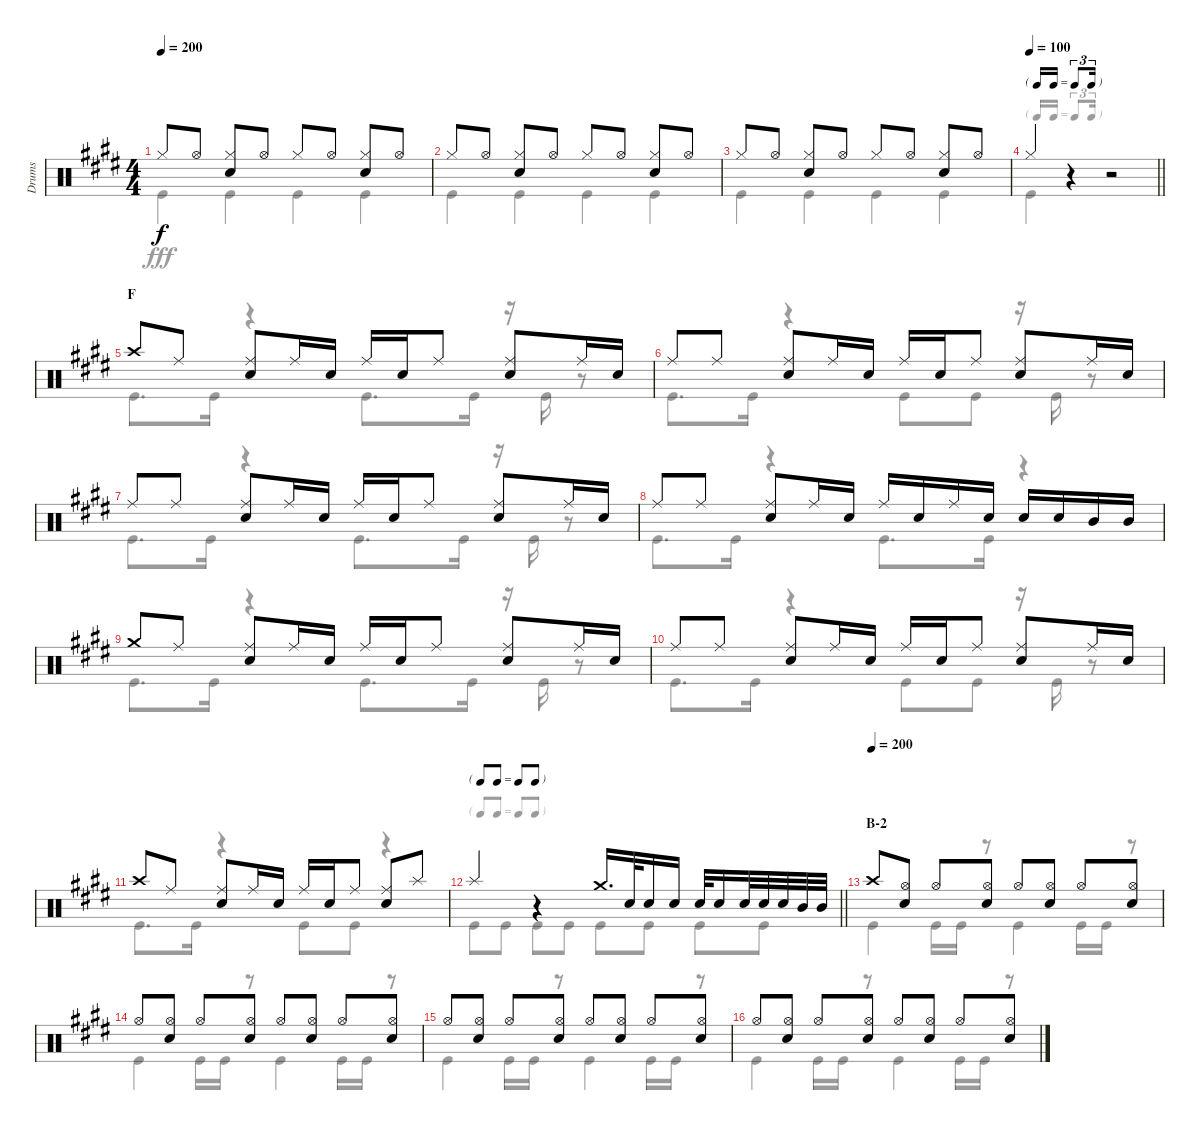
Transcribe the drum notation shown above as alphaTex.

\track ("Drums" "Drums") {instrument percussion}
\staff {score}
\articulation defaults
\voice
\ts (4 4)
\tempo 200
\clef neutral
\ks e "Hi-Hat (closed)".8{dy f} "Hi-Hat (open)".8
("Hi-Hat (closed)" "Snare (hit) 2").8 "Hi-Hat (open)".8 "Hi-Hat (closed)".8 "Hi-Hat (open)".8 ("Hi-Hat (closed)" "Snare (hit) 2").8 "Hi-Hat (open)".8 |
"Hi-Hat (closed)".8 "Hi-Hat (open)".8 ("Hi-Hat (closed)" "Snare (hit) 2").8 "Hi-Hat (open)".8 "Hi-Hat (closed)".8 "Hi-Hat (open)".8 ("Hi-Hat (closed)" "Snare (hit) 2").8 "Hi-Hat (open)".8 |
"Hi-Hat (closed)".8 "Hi-Hat (open)".8 ("Hi-Hat (closed)" "Snare (hit) 2").8 "Hi-Hat (open)".8 "Hi-Hat (closed)".8 "Hi-Hat (open)".8 ("Hi-Hat (closed)" "Snare (hit) 2").8 "Hi-Hat (open)".8 |
\tf triplet16th
\tempo 100
\barLineRight lightlight "Hi-Hat (closed)".4
r.4 r.2 |
\section ("" "F")
"Crash high (hit)".8 "Ride (middle)".8 ("Ride (middle)" "Snare (hit) 2").8 "Ride (middle)".16 "Snare (hit) 2".16 "Ride (middle)".16 "Snare (hit) 2".16 "Ride (middle)".8 ("Ride (middle)" "Snare (hit) 2").8 "Ride (middle)".16 "Snare (hit) 2".16 |
"Ride (middle)".8 "Ride (middle)".8 ("Ride (middle)" "Snare (hit) 2").8 "Ride (middle)".16 "Snare (hit) 2".16 "Ride (middle)".16 "Snare (hit) 2".16 "Ride (middle)".8 ("Ride (middle)" "Snare (hit) 2").8 "Ride (middle)".16 "Snare (hit) 2".16 |
"Ride (middle)".8 "Ride (middle)".8 ("Ride (middle)" "Snare (hit) 2").8 "Ride (middle)".16 "Snare (hit) 2".16 "Ride (middle)".16 "Snare (hit) 2".16 "Ride (middle)".8 ("Ride (middle)" "Snare (hit) 2").8 "Ride (middle)".16 "Snare (hit) 2".16 |
"Ride (middle)".8 "Ride (middle)".8 ("Ride (middle)" "Snare (hit) 2").8 "Ride (middle)".16 "Snare (hit) 2".16 "Ride (middle)".16 "Snare (hit) 2".16 "Ride (middle)".16 "Snare (hit) 2".16 "Snare (hit) 2".16 "Snare (hit) 2".16 "Mid Tom (hit)".16 "Mid Tom (hit)".16 |
"Crash medium (hit)".8 "Ride (middle)".8 ("Ride (middle)" "Snare (hit) 2").8 "Ride (middle)".16 "Snare (hit) 2".16 "Ride (middle)".16 "Snare (hit) 2".16 "Ride (middle)".8 ("Ride (middle)" "Snare (hit) 2").8 "Ride (middle)".16 "Snare (hit) 2".16 |
"Ride (middle)".8 "Ride (middle)".8 ("Ride (middle)" "Snare (hit) 2").8 "Ride (middle)".16 "Snare (hit) 2".16 "Ride (middle)".16 "Snare (hit) 2".16 "Ride (middle)".8 ("Ride (middle)" "Snare (hit) 2").8 "Ride (middle)".16 "Snare (hit) 2".16 |
"Crash high (hit)".8 "Ride (middle)".8 ("Ride (middle)" "Snare (hit) 2").8 "Ride (middle)".16 "Snare (hit) 2".16 "Ride (middle)".16 "Snare (hit) 2".16 "Ride (middle)".8 ("Ride (middle)" "Snare (hit) 2").8 "Splash (hit)".8 |
\tf none
\barLineRight lightlight "Splash (hit)".4
r.4 "Crash medium (hit)".16{d} "Snare (hit) 2".32 "Snare (hit) 2".16 "Snare (hit) 2".16 "Snare (hit) 2".32 "Snare (hit) 2".16 "Snare (hit) 2".32 "Snare (hit) 2".32 "Snare (hit) 2".32 "Mid Tom (hit)".32 "Mid Tom (hit)".32 |
\section ("" "B-2")
\tempo (200)
"Crash high (hit)".8 ("Hi-Hat (open)" "Snare (hit) 2").8 "Hi-Hat (open)".8 ("Hi-Hat (open)" "Snare (hit) 2").8 "Hi-Hat (open)".8 ("Hi-Hat (open)" "Snare (hit) 2").8 "Hi-Hat (open)".8 ("Hi-Hat (open)" "Snare (hit) 2").8 |
"Hi-Hat (open)".8 ("Hi-Hat (open)" "Snare (hit) 2").8 "Hi-Hat (open)".8 ("Hi-Hat (open)" "Snare (hit) 2").8 "Hi-Hat (open)".8 ("Hi-Hat (open)" "Snare (hit) 2").8 "Hi-Hat (open)".8 ("Hi-Hat (open)" "Snare (hit) 2").8 |
"Hi-Hat (open)".8 ("Hi-Hat (open)" "Snare (hit) 2").8 "Hi-Hat (open)".8 ("Hi-Hat (open)" "Snare (hit) 2").8 "Hi-Hat (open)".8 ("Hi-Hat (open)" "Snare (hit) 2").8 "Hi-Hat (open)".8 ("Hi-Hat (open)" "Snare (hit) 2").8 |
"Hi-Hat (open)".8 ("Hi-Hat (open)" "Snare (hit) 2").8 "Hi-Hat (open)".8 ("Hi-Hat (open)" "Snare (hit) 2").8 "Hi-Hat (open)".8 ("Hi-Hat (open)" "Snare (hit) 2").8 "Hi-Hat (open)".8 ("Hi-Hat (open)" "Snare (hit) 2").8
\voice
\clef neutral
\ottava regular
\simile none
\ks e "Kick (hit)".4{dy fff} "Kick (hit)".4 "Kick (hit)".4 "Kick (hit)".4
|
"Kick (hit)".4 "Kick (hit)".4 "Kick (hit)".4 "Kick (hit)".4 |
"Kick (hit)".4 "Kick (hit)".4 "Kick (hit)".4 "Kick (hit)".4 |
\barLineRight lightlight "Kick (hit)".4
r.4 r.2 |
"Kick (hit)".8{d} "Kick (hit)".16 r.4 "Kick (hit)".8{d} "Kick (hit)".16 r.16 "Kick (hit)".16 r.8 |
"Kick (hit)".8{d} "Kick (hit)".16 r.4 "Kick (hit)".8 "Kick (hit)".8 r.16 "Kick (hit)".16 r.8 |
"Kick (hit)".8{d} "Kick (hit)".16 r.4 "Kick (hit)".8{d} "Kick (hit)".16 r.16 "Kick (hit)".16 r.8 |
"Kick (hit)".8{d} "Kick (hit)".16 r.4 "Kick (hit)".8{d} "Kick (hit)".16 r.4 |
"Kick (hit)".8{d} "Kick (hit)".16 r.4 "Kick (hit)".8{d} "Kick (hit)".16 r.16 "Kick (hit)".16 r.8 |
"Kick (hit)".8{d} "Kick (hit)".16 r.4 "Kick (hit)".8 "Kick (hit)".8 r.16 "Kick (hit)".16 r.8 |
"Kick (hit)".8{d} "Kick (hit)".16 r.4 "Kick (hit)".8 "Kick (hit)".8 r.4 |
\barLineRight lightlight "Kick (hit)".8 "Kick (hit)".8 "Kick (hit)".8 "Kick (hit)".8 "Kick (hit)".8 "Kick (hit)".8 "Kick (hit)".8 "Kick (hit)".8
|
"Kick (hit)".4 "Kick (hit)".16 "Kick (hit)".16 r.8 "Kick (hit)".4 "Kick (hit)".16 "Kick (hit)".16 r.8 |
"Kick (hit)".4 "Kick (hit)".16 "Kick (hit)".16 r.8 "Kick (hit)".4 "Kick (hit)".16 "Kick (hit)".16 r.8 |
"Kick (hit)".4 "Kick (hit)".16 "Kick (hit)".16 r.8 "Kick (hit)".4 "Kick (hit)".16 "Kick (hit)".16 r.8 |
"Kick (hit)".4 "Kick (hit)".16 "Kick (hit)".16 r.8 "Kick (hit)".4 "Kick (hit)".16 "Kick (hit)".16 r.8
